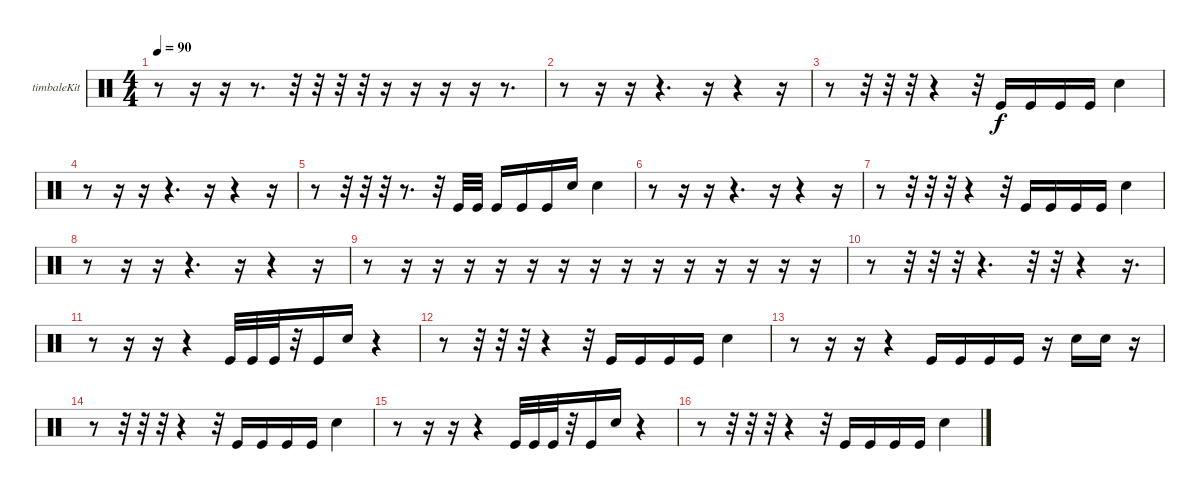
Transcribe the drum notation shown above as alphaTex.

\defaultSystemsLayout 4
\bracketExtendMode groupsimilarinstruments
\firstSystemTrackNameOrientation horizontal
\otherSystemsTrackNameOrientation horizontal
\track ("Timbale" "timbaleKit") {instrument percussion}
\staff {score}
\articulation defaults
\ts (4 4)
\tempo 90
\clef neutral
\scale
0.333333
\ks c
r.8{dy f} r.16 r.16 r.8{d} r.32 r.32 r.32 r.32 r.16 r.16 r.16 r.16 r.8{d} |
\scale
0.333333 r.8 r.16 r.16 r.4{d} r.16 r.4 r.16 |
\scale
0.333333 r.8 r.32 r.32 r.32 r.4 r.32 "Kick (hit)".16 "Kick (hit)".16 "Kick (hit)".16 "Kick (hit)".16 "Snare (hit) 2".4 |
\scale
0.333333 r.8 r.16 r.16 r.4{d} r.16 r.4 r.16 |
\scale
0.333333 r.8 r.32 r.32 r.32 r.8{d} r.32 "Kick (hit)".32 "Kick (hit)".32 "Kick (hit)".16 "Kick (hit)".16 "Kick (hit)".16 "Snare (hit) 2".16 "Snare (hit) 2".4 |
\scale
0.333333 r.8 r.16 r.16 r.4{d} r.16 r.4 r.16 |
\scale
0.333333 r.8 r.32 r.32 r.32 r.4 r.32 "Kick (hit)".16 "Kick (hit)".16 "Kick (hit)".16 "Kick (hit)".16 "Snare (hit) 2".4 |
\scale
0.333333 r.8 r.16 r.16 r.4{d} r.16 r.4 r.16 |
\scale
0.333333 r.8 r.16 r.16 r.16 r.16 r.16 r.16 r.16 r.16 r.16 r.16 r.16 r.16 r.16 r.16 |
\scale
0.333333 r.8 r.32 r.32 r.32 r.4{d} r.32 r.32 r.4 r.16{d} |
\scale
0.333333 r.8 r.16 r.16 r.4 "Kick (hit)".32 "Kick (hit)".32 "Kick (hit)".32 r.32 "Kick (hit)".16 "Snare (hit) 2".16 r.4 |
\scale
0.333333 r.8 r.32 r.32 r.32 r.4 r.32 "Kick (hit)".16 "Kick (hit)".16 "Kick (hit)".16 "Kick (hit)".16 "Snare (hit) 2".4 |
\scale
0.333333 r.8 r.16 r.16 r.4 "Kick (hit)".16 "Kick (hit)".16 "Kick (hit)".16 "Kick (hit)".16 r.16 "Snare (hit) 2".16 "Snare (hit) 2".16 r.16 |
\scale
0.333333 r.8 r.32 r.32 r.32 r.4 r.32 "Kick (hit)".16 "Kick (hit)".16 "Kick (hit)".16 "Kick (hit)".16 "Snare (hit) 2".4 |
\scale
0.333333 r.8 r.16 r.16 r.4 "Kick (hit)".32 "Kick (hit)".32 "Kick (hit)".32 r.32 "Kick (hit)".16 "Snare (hit) 2".16 r.4 |
\scale
0.333333 r.8 r.32 r.32 r.32 r.4 r.32 "Kick (hit)".16 "Kick (hit)".16 "Kick (hit)".16 "Kick (hit)".16 "Snare (hit) 2".4
